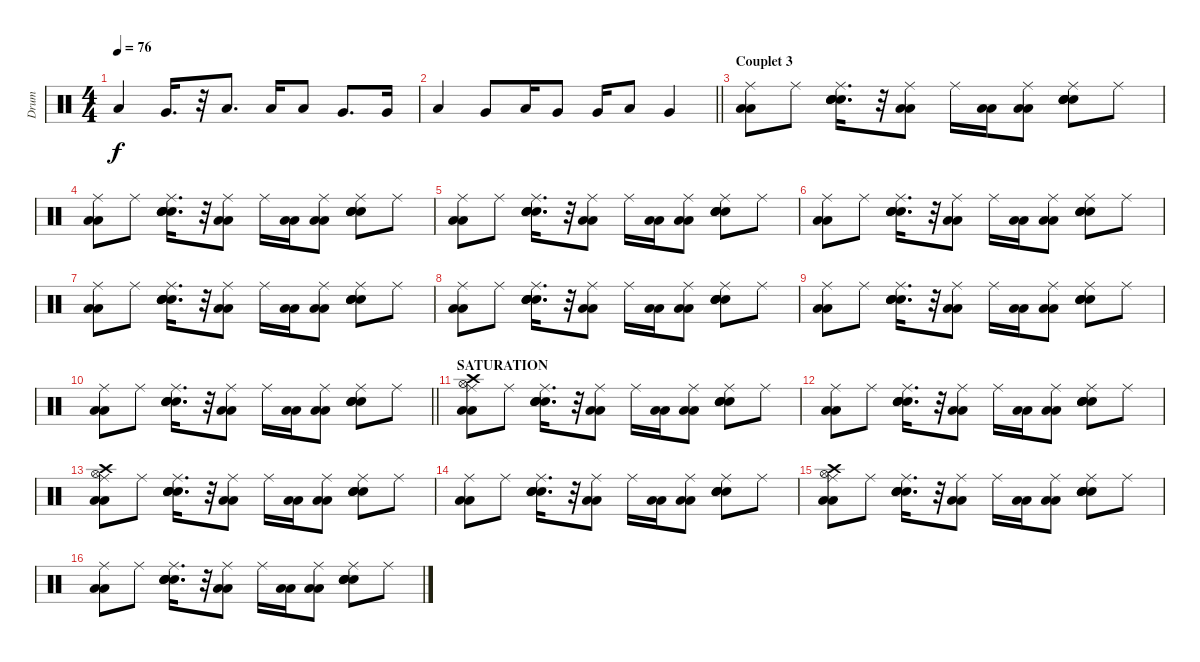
\track ("Drum" "Drum") {instrument percussion}
\staff {score}
\articulation defaults
\ts (4 4)
\tempo 76
\clef neutral
\ks c "Low Floor Tom (hit)".4{dy f} "Very Low Tom (hit)".16{d}
r.32 "Low Floor Tom (hit)".8{d} "Low Floor Tom (hit)".16 "Low Floor Tom (hit)".8 "Very Low Tom (hit)".8{d} "Very Low Tom (hit)".16 |
\barLineRight lightlight "Low Floor Tom (hit)".4 "Very Low Tom (hit)".8 "Low Floor Tom (hit)".16 "Very Low Tom (hit)".8 "Very Low Tom (hit)".16 "Low Floor Tom (hit)".8 "Very Low Tom (hit)".4
|
\section ("" "Couplet 3")
("Low Floor Tom (hit)" "Low Floor Tom (hit)" "Ride (middle)").8{volume 7} "Ride (middle)".8 ("Electric Snare (hit)" "Electric Snare (hit)" "Snare (hit) 2" "Ride (middle)" "Snare (hit) 2").16{d} r.32 ("Low Floor Tom (hit)" "Low Floor Tom (hit)" "Ride (middle)").8 "Ride (middle)".16 ("Low Floor Tom (hit)" "Low Floor Tom (hit)").16 ("Low Floor Tom (hit)" "Low Floor Tom (hit)" "Ride (middle)").8 ("Electric Snare (hit)" "Electric Snare (hit)" "Snare (hit) 2" "Ride (middle)" "Snare (hit) 2").8 "Ride (middle)".8 |
("Low Floor Tom (hit)" "Low Floor Tom (hit)" "Ride (middle)").8 "Ride (middle)".8 ("Electric Snare (hit)" "Electric Snare (hit)" "Snare (hit) 2" "Ride (middle)" "Snare (hit) 2").16{d} r.32 ("Low Floor Tom (hit)" "Low Floor Tom (hit)" "Ride (middle)").8 "Ride (middle)".16 ("Low Floor Tom (hit)" "Low Floor Tom (hit)").16 ("Low Floor Tom (hit)" "Low Floor Tom (hit)" "Ride (middle)").8 ("Electric Snare (hit)" "Electric Snare (hit)" "Snare (hit) 2" "Ride (middle)" "Snare (hit) 2").8 "Ride (middle)".8 |
("Low Floor Tom (hit)" "Low Floor Tom (hit)" "Ride (middle)").8 "Ride (middle)".8 ("Electric Snare (hit)" "Electric Snare (hit)" "Snare (hit) 2" "Ride (middle)" "Snare (hit) 2").16{d} r.32 ("Low Floor Tom (hit)" "Low Floor Tom (hit)" "Ride (middle)").8 "Ride (middle)".16 ("Low Floor Tom (hit)" "Low Floor Tom (hit)").16 ("Low Floor Tom (hit)" "Low Floor Tom (hit)" "Ride (middle)").8 ("Electric Snare (hit)" "Electric Snare (hit)" "Snare (hit) 2" "Ride (middle)" "Snare (hit) 2").8 "Ride (middle)".8 |
("Low Floor Tom (hit)" "Low Floor Tom (hit)" "Ride (middle)").8 "Ride (middle)".8 ("Electric Snare (hit)" "Electric Snare (hit)" "Snare (hit) 2" "Ride (middle)" "Snare (hit) 2").16{d} r.32 ("Low Floor Tom (hit)" "Low Floor Tom (hit)" "Ride (middle)").8 "Ride (middle)".16 ("Low Floor Tom (hit)" "Low Floor Tom (hit)").16 ("Low Floor Tom (hit)" "Low Floor Tom (hit)" "Ride (middle)").8 ("Electric Snare (hit)" "Electric Snare (hit)" "Snare (hit) 2" "Ride (middle)" "Snare (hit) 2").8 "Ride (middle)".8 |
("Low Floor Tom (hit)" "Low Floor Tom (hit)" "Ride (middle)").8 "Ride (middle)".8 ("Electric Snare (hit)" "Electric Snare (hit)" "Snare (hit) 2" "Ride (middle)" "Snare (hit) 2").16{d} r.32 ("Low Floor Tom (hit)" "Low Floor Tom (hit)" "Ride (middle)").8 "Ride (middle)".16 ("Low Floor Tom (hit)" "Low Floor Tom (hit)").16 ("Low Floor Tom (hit)" "Low Floor Tom (hit)" "Ride (middle)").8 ("Electric Snare (hit)" "Electric Snare (hit)" "Snare (hit) 2" "Ride (middle)" "Snare (hit) 2").8 "Ride (middle)".8 |
("Low Floor Tom (hit)" "Low Floor Tom (hit)" "Ride (middle)").8 "Ride (middle)".8 ("Electric Snare (hit)" "Electric Snare (hit)" "Snare (hit) 2" "Ride (middle)" "Snare (hit) 2").16{d} r.32 ("Low Floor Tom (hit)" "Low Floor Tom (hit)" "Ride (middle)").8 "Ride (middle)".16 ("Low Floor Tom (hit)" "Low Floor Tom (hit)").16 ("Low Floor Tom (hit)" "Low Floor Tom (hit)" "Ride (middle)").8 ("Electric Snare (hit)" "Electric Snare (hit)" "Snare (hit) 2" "Ride (middle)" "Snare (hit) 2").8 "Ride (middle)".8 |
("Low Floor Tom (hit)" "Low Floor Tom (hit)" "Ride (middle)").8 "Ride (middle)".8 ("Electric Snare (hit)" "Electric Snare (hit)" "Snare (hit) 2" "Ride (middle)" "Snare (hit) 2").16{d} r.32 ("Low Floor Tom (hit)" "Low Floor Tom (hit)" "Ride (middle)").8 "Ride (middle)".16 ("Low Floor Tom (hit)" "Low Floor Tom (hit)").16 ("Low Floor Tom (hit)" "Low Floor Tom (hit)" "Ride (middle)").8 ("Electric Snare (hit)" "Electric Snare (hit)" "Snare (hit) 2" "Ride (middle)" "Snare (hit) 2").8 "Ride (middle)".8 |
\barLineRight lightlight
("Low Floor Tom (hit)" "Low Floor Tom (hit)" "Ride (middle)").8 "Ride (middle)".8 ("Electric Snare (hit)" "Electric Snare (hit)" "Snare (hit) 2" "Ride (middle)" "Snare (hit) 2").16{d} r.32 ("Low Floor Tom (hit)" "Low Floor Tom (hit)" "Ride (middle)").8 "Ride (middle)".16 ("Low Floor Tom (hit)" "Low Floor Tom (hit)").16 ("Low Floor Tom (hit)" "Low Floor Tom (hit)" "Ride (middle)").8 ("Electric Snare (hit)" "Electric Snare (hit)" "Snare (hit) 2" "Ride (middle)" "Snare (hit) 2").8 "Ride (middle)".8 |
\section ("" "SATURATION")
("Hi-Hat (open)" "Low Floor Tom (hit)" "Low Floor Tom (hit)" "Ride (middle)" "Crash high (hit)").8 "Ride (middle)".8 ("Electric Snare (hit)" "Electric Snare (hit)" "Snare (hit) 2" "Ride (middle)" "Snare (hit) 2").16{d} r.32 ("Low Floor Tom (hit)" "Low Floor Tom (hit)" "Ride (middle)").8 "Ride (middle)".16 ("Low Floor Tom (hit)" "Low Floor Tom (hit)").16 ("Low Floor Tom (hit)" "Low Floor Tom (hit)" "Ride (middle)").8 ("Electric Snare (hit)" "Electric Snare (hit)" "Snare (hit) 2" "Ride (middle)" "Snare (hit) 2").8 "Ride (middle)".8 |
("Low Floor Tom (hit)" "Low Floor Tom (hit)" "Ride (middle)").8 "Ride (middle)".8 ("Electric Snare (hit)" "Electric Snare (hit)" "Snare (hit) 2" "Ride (middle)" "Snare (hit) 2").16{d} r.32 ("Low Floor Tom (hit)" "Low Floor Tom (hit)" "Ride (middle)").8 "Ride (middle)".16 ("Low Floor Tom (hit)" "Low Floor Tom (hit)").16 ("Low Floor Tom (hit)" "Low Floor Tom (hit)" "Ride (middle)").8 ("Electric Snare (hit)" "Electric Snare (hit)" "Snare (hit) 2" "Ride (middle)" "Snare (hit) 2").8 "Ride (middle)".8 |
("Hi-Hat (open)" "Low Floor Tom (hit)" "Low Floor Tom (hit)" "Ride (middle)" "Crash high (hit)").8 "Ride (middle)".8 ("Electric Snare (hit)" "Electric Snare (hit)" "Snare (hit) 2" "Ride (middle)" "Snare (hit) 2").16{d} r.32 ("Low Floor Tom (hit)" "Low Floor Tom (hit)" "Ride (middle)").8 "Ride (middle)".16 ("Low Floor Tom (hit)" "Low Floor Tom (hit)").16 ("Low Floor Tom (hit)" "Low Floor Tom (hit)" "Ride (middle)").8 ("Electric Snare (hit)" "Electric Snare (hit)" "Snare (hit) 2" "Ride (middle)" "Snare (hit) 2").8 "Ride (middle)".8 |
("Low Floor Tom (hit)" "Low Floor Tom (hit)" "Ride (middle)").8 "Ride (middle)".8 ("Electric Snare (hit)" "Electric Snare (hit)" "Snare (hit) 2" "Ride (middle)" "Snare (hit) 2").16{d} r.32 ("Low Floor Tom (hit)" "Low Floor Tom (hit)" "Ride (middle)").8 "Ride (middle)".16 ("Low Floor Tom (hit)" "Low Floor Tom (hit)").16 ("Low Floor Tom (hit)" "Low Floor Tom (hit)" "Ride (middle)").8 ("Electric Snare (hit)" "Electric Snare (hit)" "Snare (hit) 2" "Ride (middle)" "Snare (hit) 2").8 "Ride (middle)".8 |
("Hi-Hat (open)" "Low Floor Tom (hit)" "Low Floor Tom (hit)" "Ride (middle)" "Crash high (hit)").8 "Ride (middle)".8 ("Electric Snare (hit)" "Electric Snare (hit)" "Snare (hit) 2" "Ride (middle)" "Snare (hit) 2").16{d} r.32 ("Low Floor Tom (hit)" "Low Floor Tom (hit)" "Ride (middle)").8 "Ride (middle)".16 ("Low Floor Tom (hit)" "Low Floor Tom (hit)").16 ("Low Floor Tom (hit)" "Low Floor Tom (hit)" "Ride (middle)").8 ("Electric Snare (hit)" "Electric Snare (hit)" "Snare (hit) 2" "Ride (middle)" "Snare (hit) 2").8 "Ride (middle)".8 |
("Low Floor Tom (hit)" "Low Floor Tom (hit)" "Ride (middle)").8 "Ride (middle)".8 ("Electric Snare (hit)" "Electric Snare (hit)" "Snare (hit) 2" "Ride (middle)" "Snare (hit) 2").16{d} r.32 ("Low Floor Tom (hit)" "Low Floor Tom (hit)" "Ride (middle)").8 "Ride (middle)".16 ("Low Floor Tom (hit)" "Low Floor Tom (hit)").16 ("Low Floor Tom (hit)" "Low Floor Tom (hit)" "Ride (middle)").8 ("Electric Snare (hit)" "Electric Snare (hit)" "Snare (hit) 2" "Ride (middle)" "Snare (hit) 2").8 "Ride (middle)".8
